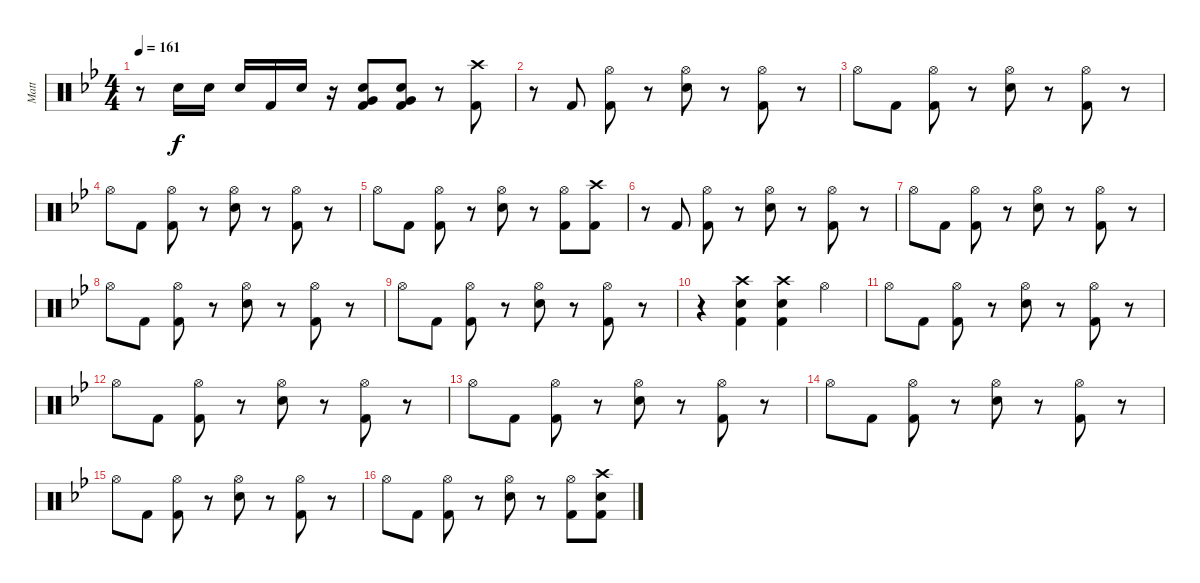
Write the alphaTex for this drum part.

\track ("Matt" "Matt") {instrument percussion}
\staff {score}
\articulation defaults
\ts (4 4)
\tempo 161
\clef neutral
\ks bb
r.8{dy f} "Snare (hit) 2".16 "Snare (hit) 2".16 "Snare (hit) 2".16 "Kick (hit) 2".16 "Snare (hit) 2".16 r.16 ("Snare (hit) 2" "Very Low Tom (hit)" "Kick (hit) 2").8 ("Snare (hit) 2" "Very Low Tom (hit)" "Kick (hit) 2").8 r.8 ("Crash high (hit)" "Kick (hit) 2").8 |
r.8 "Kick (hit) 2".8 ("Hi-Hat (open)" "Kick (hit) 2").8 r.8 ("Hi-Hat (open)" "Snare (hit) 2").8 r.8 ("Hi-Hat (open)" "Kick (hit) 2").8 r.8 |
"Hi-Hat (open)".8 "Kick (hit) 2".8 ("Hi-Hat (open)" "Kick (hit) 2").8 r.8 ("Hi-Hat (open)" "Snare (hit) 2").8 r.8 ("Hi-Hat (open)" "Kick (hit) 2").8 r.8 |
"Hi-Hat (open)".8 "Kick (hit) 2".8 ("Hi-Hat (open)" "Kick (hit) 2").8 r.8 ("Hi-Hat (open)" "Snare (hit) 2").8 r.8 ("Hi-Hat (open)" "Kick (hit) 2").8 r.8 |
"Hi-Hat (open)".8 "Kick (hit) 2".8 ("Hi-Hat (open)" "Kick (hit) 2").8 r.8 ("Hi-Hat (open)" "Snare (hit) 2").8 r.8 ("Hi-Hat (open)" "Kick (hit) 2").8 ("Crash high (hit)" "Kick (hit) 2").8 |
r.8 "Kick (hit) 2".8 ("Hi-Hat (open)" "Kick (hit) 2").8 r.8 ("Hi-Hat (open)" "Snare (hit) 2").8 r.8 ("Hi-Hat (open)" "Kick (hit) 2").8 r.8 |
"Hi-Hat (open)".8 "Kick (hit) 2".8 ("Hi-Hat (open)" "Kick (hit) 2").8 r.8 ("Hi-Hat (open)" "Snare (hit) 2").8 r.8 ("Hi-Hat (open)" "Kick (hit) 2").8 r.8 |
"Hi-Hat (open)".8 "Kick (hit) 2".8 ("Hi-Hat (open)" "Kick (hit) 2").8 r.8 ("Hi-Hat (open)" "Snare (hit) 2").8 r.8 ("Hi-Hat (open)" "Kick (hit) 2").8 r.8 |
"Hi-Hat (open)".8 "Kick (hit) 2".8 ("Hi-Hat (open)" "Kick (hit) 2").8 r.8 ("Hi-Hat (open)" "Snare (hit) 2").8 r.8 ("Hi-Hat (open)" "Kick (hit) 2").8 r.8 |
r.4 ("Crash high (hit)" "Snare (hit) 2" "Kick (hit) 2").4 ("Crash high (hit)" "Snare (hit) 2" "Kick (hit) 2").4 "Hi-Hat (open)".4 |
"Hi-Hat (open)".8 "Kick (hit) 2".8 ("Hi-Hat (open)" "Kick (hit) 2").8 r.8 ("Hi-Hat (open)" "Snare (hit) 2").8 r.8 ("Hi-Hat (open)" "Kick (hit) 2").8 r.8 |
"Hi-Hat (open)".8 "Kick (hit) 2".8 ("Hi-Hat (open)" "Kick (hit) 2").8 r.8 ("Hi-Hat (open)" "Snare (hit) 2").8 r.8 ("Hi-Hat (open)" "Kick (hit) 2").8 r.8 |
"Hi-Hat (open)".8 "Kick (hit) 2".8 ("Hi-Hat (open)" "Kick (hit) 2").8 r.8 ("Hi-Hat (open)" "Snare (hit) 2").8 r.8 ("Hi-Hat (open)" "Kick (hit) 2").8 r.8 |
"Hi-Hat (open)".8 "Kick (hit) 2".8 ("Hi-Hat (open)" "Kick (hit) 2").8 r.8 ("Hi-Hat (open)" "Snare (hit) 2").8 r.8 ("Hi-Hat (open)" "Kick (hit) 2").8 r.8 |
"Hi-Hat (open)".8 "Kick (hit) 2".8 ("Hi-Hat (open)" "Kick (hit) 2").8 r.8 ("Hi-Hat (open)" "Snare (hit) 2").8 r.8 ("Hi-Hat (open)" "Kick (hit) 2").8 r.8 |
"Hi-Hat (open)".8 "Kick (hit) 2".8 ("Hi-Hat (open)" "Kick (hit) 2").8 r.8 ("Hi-Hat (open)" "Snare (hit) 2").8 r.8 ("Hi-Hat (open)" "Kick (hit) 2").8 ("Crash high (hit)" "Snare (hit) 2" "Kick (hit) 2").8
